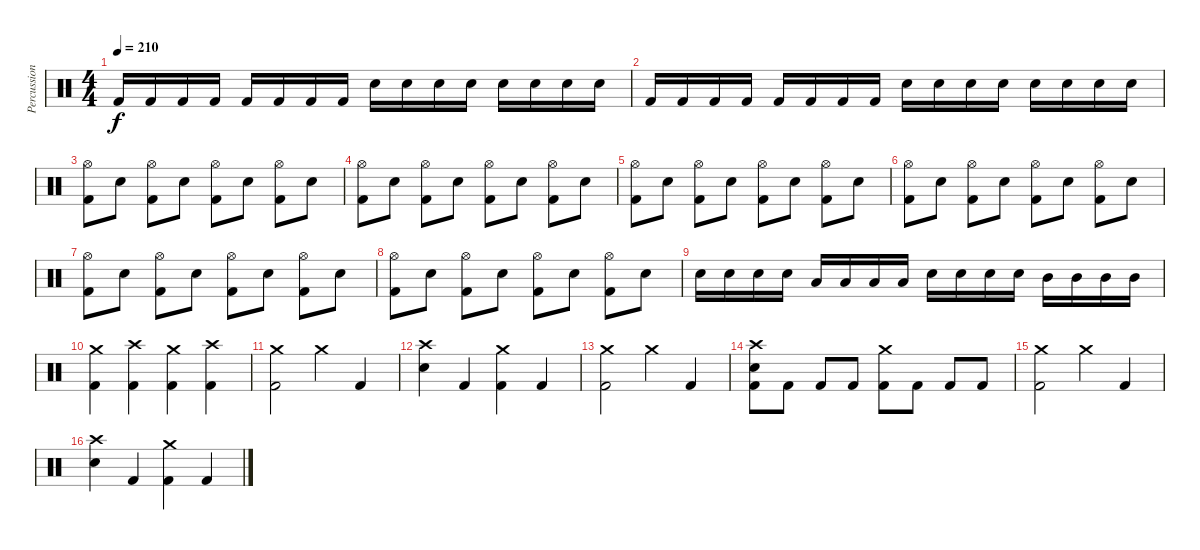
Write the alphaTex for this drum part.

\track ("Percussion" "Percussion") {instrument percussion}
\staff {score}
\articulation defaults
\ts (4 4)
\tempo 210
\clef neutral
\ks c "Kick (hit) 2".16{dy f} "Kick (hit) 2".16 "Kick (hit) 2".16 "Kick (hit) 2".16 "Kick (hit) 2".16 "Kick (hit) 2".16 "Kick (hit) 2".16 "Kick (hit) 2".16 "Electric Snare (hit)".16 "Electric Snare (hit)".16 "Electric Snare (hit)".16 "Electric Snare (hit)".16 "Electric Snare (hit)".16 "Electric Snare (hit)".16 "Electric Snare (hit)".16 "Electric Snare (hit)".16
|
"Kick (hit) 2".16 "Kick (hit) 2".16 "Kick (hit) 2".16 "Kick (hit) 2".16 "Kick (hit) 2".16 "Kick (hit) 2".16 "Kick (hit) 2".16 "Kick (hit) 2".16 "Electric Snare (hit)".16 "Electric Snare (hit)".16 "Electric Snare (hit)".16 "Electric Snare (hit)".16 "Electric Snare (hit)".16 "Electric Snare (hit)".16 "Electric Snare (hit)".16 "Electric Snare (hit)".16 |
("Hi-Hat (open)" "Kick (hit) 2").8 "Electric Snare (hit)".8 ("Hi-Hat (open)" "Kick (hit) 2").8 "Electric Snare (hit)".8 ("Hi-Hat (open)" "Kick (hit) 2").8 "Electric Snare (hit)".8 ("Hi-Hat (open)" "Kick (hit) 2").8 "Electric Snare (hit)".8 |
("Hi-Hat (open)" "Kick (hit) 2").8 "Electric Snare (hit)".8 ("Hi-Hat (open)" "Kick (hit) 2").8 "Electric Snare (hit)".8 ("Hi-Hat (open)" "Kick (hit) 2").8 "Electric Snare (hit)".8 ("Hi-Hat (open)" "Kick (hit) 2").8 "Electric Snare (hit)".8 |
("Hi-Hat (open)" "Kick (hit) 2").8 "Electric Snare (hit)".8 ("Hi-Hat (open)" "Kick (hit) 2").8 "Electric Snare (hit)".8 ("Hi-Hat (open)" "Kick (hit) 2").8 "Electric Snare (hit)".8 ("Hi-Hat (open)" "Kick (hit) 2").8 "Electric Snare (hit)".8 |
("Hi-Hat (open)" "Kick (hit) 2").8 "Electric Snare (hit)".8 ("Hi-Hat (open)" "Kick (hit) 2").8 "Electric Snare (hit)".8 ("Hi-Hat (open)" "Kick (hit) 2").8 "Electric Snare (hit)".8 ("Hi-Hat (open)" "Kick (hit) 2").8 "Electric Snare (hit)".8 |
("Hi-Hat (open)" "Kick (hit) 2").8 "Electric Snare (hit)".8 ("Hi-Hat (open)" "Kick (hit) 2").8 "Electric Snare (hit)".8 ("Hi-Hat (open)" "Kick (hit) 2").8 "Electric Snare (hit)".8 ("Hi-Hat (open)" "Kick (hit) 2").8 "Electric Snare (hit)".8 |
("Hi-Hat (open)" "Kick (hit) 2").8 "Electric Snare (hit)".8 ("Hi-Hat (open)" "Kick (hit) 2").8 "Electric Snare (hit)".8 ("Hi-Hat (open)" "Kick (hit) 2").8 "Electric Snare (hit)".8 ("Hi-Hat (open)" "Kick (hit) 2").8 "Electric Snare (hit)".8 |
"Electric Snare (hit)".16 "Electric Snare (hit)".16 "Electric Snare (hit)".16 "Electric Snare (hit)".16 "Low Tom (hit)".16 "Low Tom (hit)".16 "Low Tom (hit)".16 "Low Tom (hit)".16 "Electric Snare (hit)".16 "Electric Snare (hit)".16 "Electric Snare (hit)".16 "Electric Snare (hit)".16 "Mid Tom (hit)".16 "Mid Tom (hit)".16 "Mid Tom (hit)".16 "Mid Tom (hit)".16 |
("Crash medium (hit)" "Kick (hit) 2").4 ("Crash high (hit)" "Kick (hit) 2").4 ("Crash medium (hit)" "Kick (hit) 2").4 ("Crash high (hit)" "Kick (hit) 2").4 |
("Crash medium (hit)" "Kick (hit) 2").2 "Crash medium (hit)".4 "Kick (hit) 2".4 |
("Crash high (hit)" "Electric Snare (hit)").4 "Kick (hit) 2".4 ("Crash medium (hit)" "Kick (hit) 2").4 "Kick (hit) 2".4 |
("Crash medium (hit)" "Kick (hit) 2").2 "Crash medium (hit)".4 "Kick (hit) 2".4 |
("Crash high (hit)" "Electric Snare (hit)" "Kick (hit) 2").8 "Kick (hit) 2".8 "Kick (hit) 2".8 "Kick (hit) 2".8 ("Crash medium (hit)" "Kick (hit) 2").8 "Kick (hit) 2".8 "Kick (hit) 2".8 "Kick (hit) 2".8 |
("Crash medium (hit)" "Kick (hit) 2").2 "Crash medium (hit)".4 "Kick (hit) 2".4 |
("Crash high (hit)" "Electric Snare (hit)").4 "Kick (hit) 2".4 ("Crash medium (hit)" "Kick (hit) 2").4 "Kick (hit) 2".4
